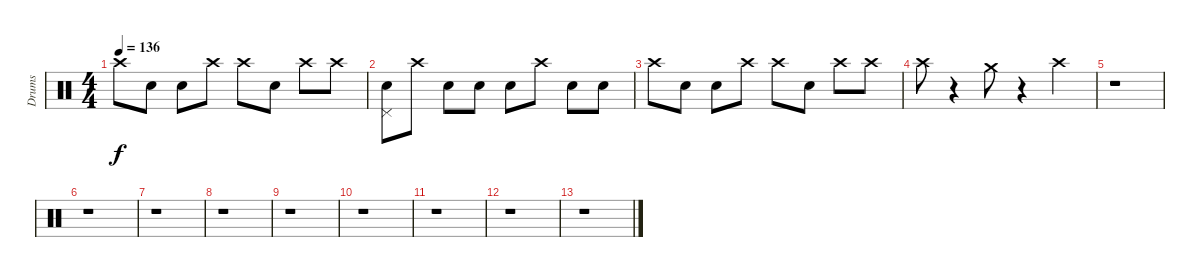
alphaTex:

\track ("Drums" "Drums") {instrument percussion}
\staff {score}
\articulation defaults
\ts (4 4)
\tempo 136
\clef neutral
\ks c "Crash high (hit)".8{dy f} "Electric Snare (hit)".8 "Snare (hit) 2".8 "Crash high (hit)".8 "Crash high (hit)".8 "Snare (hit) 2".8 "Crash high (hit)".8 "Crash high (hit)".8
|
("Snare (hit) 2" "Pedal Hi-Hat (hit)").8 "Crash high (hit)".8 "Electric Snare (hit)".8 "Snare (hit) 2".8 "Snare (hit) 2".8 "Crash high (hit)".8 "Electric Snare (hit)".8 "Snare (hit) 2".8 |
"Crash high (hit)".8 "Electric Snare (hit)".8 "Snare (hit) 2".8 "Crash high (hit)".8 "Crash high (hit)".8 "Snare (hit) 2".8 "Crash high (hit)".8 "Crash high (hit)".8 |
"Crash high (hit)".8 r.4 "Crash medium (hit)".8 r.4 "Crash high (hit)".4 |
r.1 |
r.1 |
r.1 |
r.1 |
r.1 |
r.1 |
r.1 |
r.1 |
r.1
